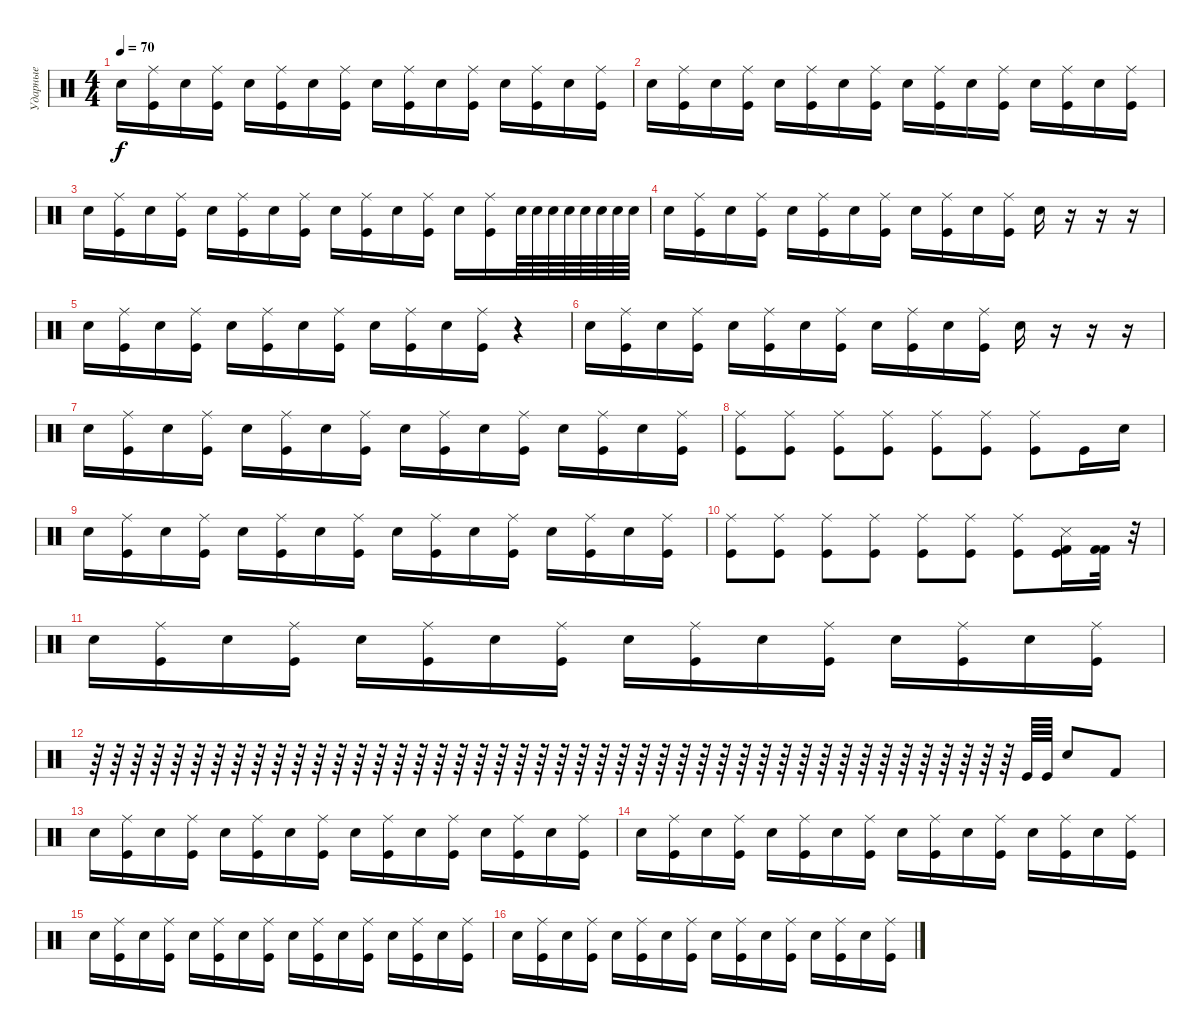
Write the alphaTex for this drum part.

\track ("Ударные" "Ударные") {instrument percussion}
\staff {score}
\articulation defaults
\ts (4 4)
\tempo 70
\clef neutral
\ks c "Snare (hit) 2".16{dy f}
("Kick (hit)" "Ride (middle)").16 "Snare (hit) 2".16 ("Kick (hit)" "Ride (middle)").16 "Snare (hit) 2".16 ("Kick (hit)" "Ride (middle)").16 "Snare (hit) 2".16 ("Kick (hit)" "Ride (middle)").16 "Snare (hit) 2".16 ("Kick (hit)" "Ride (middle)").16 "Snare (hit) 2".16 ("Kick (hit)" "Ride (middle)").16 "Snare (hit) 2".16 ("Kick (hit)" "Ride (middle)").16 "Snare (hit) 2".16 ("Kick (hit)" "Ride (middle)").16 |
"Snare (hit) 2".16 ("Kick (hit)" "Ride (middle)").16 "Snare (hit) 2".16 ("Kick (hit)" "Ride (middle)").16 "Snare (hit) 2".16 ("Kick (hit)" "Ride (middle)").16 "Snare (hit) 2".16 ("Kick (hit)" "Ride (middle)").16 "Snare (hit) 2".16 ("Kick (hit)" "Ride (middle)").16 "Snare (hit) 2".16 ("Kick (hit)" "Ride (middle)").16 "Snare (hit) 2".16 ("Kick (hit)" "Ride (middle)").16 "Snare (hit) 2".16 ("Kick (hit)" "Ride (middle)").16 |
"Snare (hit) 2".16 ("Kick (hit)" "Ride (middle)").16 "Snare (hit) 2".16 ("Kick (hit)" "Ride (middle)").16 "Snare (hit) 2".16 ("Kick (hit)" "Ride (middle)").16 "Snare (hit) 2".16 ("Kick (hit)" "Ride (middle)").16 "Snare (hit) 2".16 ("Kick (hit)" "Ride (middle)").16 "Snare (hit) 2".16 ("Kick (hit)" "Ride (middle)").16 "Snare (hit) 2".16 ("Kick (hit)" "Ride (middle)").16 "Electric Snare (hit)".64 "Electric Snare (hit)".64 "Electric Snare (hit)".64 "Electric Snare (hit)".64 "Electric Snare (hit)".64 "Electric Snare (hit)".64 "Electric Snare (hit)".64 "Electric Snare (hit)".64 |
"Snare (hit) 2".16 ("Kick (hit)" "Ride (middle)").16 "Snare (hit) 2".16 ("Kick (hit)" "Ride (middle)").16 "Snare (hit) 2".16 ("Kick (hit)" "Ride (middle)").16 "Snare (hit) 2".16 ("Kick (hit)" "Ride (middle)").16 "Snare (hit) 2".16 ("Kick (hit)" "Ride (middle)").16 "Snare (hit) 2".16 ("Kick (hit)" "Ride (middle)").16 "Snare (hit) 2".16 r.16 r.16 r.16 |
"Snare (hit) 2".16 ("Kick (hit)" "Ride (middle)").16 "Snare (hit) 2".16 ("Kick (hit)" "Ride (middle)").16 "Snare (hit) 2".16 ("Kick (hit)" "Ride (middle)").16 "Snare (hit) 2".16 ("Kick (hit)" "Ride (middle)").16 "Snare (hit) 2".16 ("Kick (hit)" "Ride (middle)").16 "Snare (hit) 2".16 ("Kick (hit)" "Ride (middle)").16 r.4 |
"Snare (hit) 2".16 ("Kick (hit)" "Ride (middle)").16 "Snare (hit) 2".16 ("Kick (hit)" "Ride (middle)").16 "Snare (hit) 2".16 ("Kick (hit)" "Ride (middle)").16 "Snare (hit) 2".16 ("Kick (hit)" "Ride (middle)").16 "Snare (hit) 2".16 ("Kick (hit)" "Ride (middle)").16 "Snare (hit) 2".16 ("Kick (hit)" "Ride (middle)").16 "Snare (hit) 2".16 r.16 r.16 r.16 |
"Snare (hit) 2".16 ("Kick (hit)" "Ride (middle)").16 "Snare (hit) 2".16 ("Kick (hit)" "Ride (middle)").16 "Snare (hit) 2".16 ("Kick (hit)" "Ride (middle)").16 "Snare (hit) 2".16 ("Kick (hit)" "Ride (middle)").16 "Snare (hit) 2".16 ("Kick (hit)" "Ride (middle)").16 "Snare (hit) 2".16 ("Kick (hit)" "Ride (middle)").16 "Snare (hit) 2".16 ("Kick (hit)" "Ride (middle)").16 "Snare (hit) 2".16 ("Kick (hit)" "Ride (middle)").16 |
("Kick (hit)" "Ride (middle)").8 ("Kick (hit)" "Ride (middle)").8 ("Kick (hit)" "Ride (middle)").8 ("Kick (hit)" "Ride (middle)").8 ("Kick (hit)" "Ride (middle)").8 ("Kick (hit)" "Ride (middle)").8 ("Kick (hit)" "Ride (middle)").8 "Kick (hit)".16 "Snare (hit) 2".16 |
"Snare (hit) 2".16 ("Kick (hit)" "Ride (middle)").16 "Snare (hit) 2".16 ("Kick (hit)" "Ride (middle)").16 "Snare (hit) 2".16 ("Kick (hit)" "Ride (middle)").16 "Snare (hit) 2".16 ("Kick (hit)" "Ride (middle)").16 "Snare (hit) 2".16 ("Kick (hit)" "Ride (middle)").16 "Snare (hit) 2".16 ("Kick (hit)" "Ride (middle)").16 "Snare (hit) 2".16 ("Kick (hit)" "Ride (middle)").16 "Snare (hit) 2".16 ("Kick (hit)" "Ride (middle)").16 |
("Kick (hit)" "Ride (middle)").8 ("Kick (hit)" "Ride (middle)").8 ("Kick (hit)" "Ride (middle)").8 ("Kick (hit)" "Ride (middle)").8 ("Kick (hit)" "Ride (middle)").8 ("Kick (hit)" "Ride (middle)").8 ("Kick (hit)" "Ride (middle)").8 ("Kick (hit) 2" "Snare (side stick) 3" "Kick (hit)").16 ("Kick (hit) 2" "Kick (hit) 2").32 r.32 |
"Snare (hit) 2".16 ("Kick (hit)" "Ride (middle)").16 "Snare (hit) 2".16 ("Kick (hit)" "Ride (middle)").16 "Snare (hit) 2".16 ("Kick (hit)" "Ride (middle)").16 "Snare (hit) 2".16 ("Kick (hit)" "Ride (middle)").16 "Snare (hit) 2".16 ("Kick (hit)" "Ride (middle)").16 "Snare (hit) 2".16 ("Kick (hit)" "Ride (middle)").16 "Snare (hit) 2".16 ("Kick (hit)" "Ride (middle)").16 "Snare (hit) 2".16 ("Kick (hit)" "Ride (middle)").16 |
r.64 r.64 r.64 r.64 r.64 r.64 r.64 r.64 r.64 r.64 r.64 r.64 r.64 r.64 r.64 r.64 r.64 r.64 r.64 r.64 r.64 r.64 r.64 r.64 r.64 r.64 r.64 r.64 r.64 r.64 r.64 r.64 r.64 r.64 r.64 r.64 r.64 r.64 r.64 r.64 r.64 r.64 r.64 r.64 r.64 r.64 "Kick (hit)".64 "Kick (hit)".64 "Snare (hit) 2".8 "Kick (hit) 2".8 |
"Snare (hit) 2".16 ("Kick (hit)" "Ride (middle)").16 "Snare (hit) 2".16 ("Kick (hit)" "Ride (middle)").16 "Snare (hit) 2".16 ("Kick (hit)" "Ride (middle)").16 "Snare (hit) 2".16 ("Kick (hit)" "Ride (middle)").16 "Snare (hit) 2".16 ("Kick (hit)" "Ride (middle)").16 "Snare (hit) 2".16 ("Kick (hit)" "Ride (middle)").16 "Snare (hit) 2".16 ("Kick (hit)" "Ride (middle)").16 "Snare (hit) 2".16 ("Kick (hit)" "Ride (middle)").16 |
"Snare (hit) 2".16 ("Kick (hit)" "Ride (middle)").16 "Snare (hit) 2".16 ("Kick (hit)" "Ride (middle)").16 "Snare (hit) 2".16 ("Kick (hit)" "Ride (middle)").16 "Snare (hit) 2".16 ("Kick (hit)" "Ride (middle)").16 "Snare (hit) 2".16 ("Kick (hit)" "Ride (middle)").16 "Snare (hit) 2".16 ("Kick (hit)" "Ride (middle)").16 "Snare (hit) 2".16 ("Kick (hit)" "Ride (middle)").16 "Snare (hit) 2".16 ("Kick (hit)" "Ride (middle)").16 |
"Snare (hit) 2".16 ("Kick (hit)" "Ride (middle)").16 "Snare (hit) 2".16 ("Kick (hit)" "Ride (middle)").16 "Snare (hit) 2".16 ("Kick (hit)" "Ride (middle)").16 "Snare (hit) 2".16 ("Kick (hit)" "Ride (middle)").16 "Snare (hit) 2".16 ("Kick (hit)" "Ride (middle)").16 "Snare (hit) 2".16 ("Kick (hit)" "Ride (middle)").16 "Snare (hit) 2".16 ("Kick (hit)" "Ride (middle)").16 "Snare (hit) 2".16 ("Kick (hit)" "Ride (middle)").16 |
"Snare (hit) 2".16 ("Kick (hit)" "Ride (middle)").16 "Snare (hit) 2".16 ("Kick (hit)" "Ride (middle)").16 "Snare (hit) 2".16 ("Kick (hit)" "Ride (middle)").16 "Snare (hit) 2".16 ("Kick (hit)" "Ride (middle)").16 "Snare (hit) 2".16 ("Kick (hit)" "Ride (middle)").16 "Snare (hit) 2".16 ("Kick (hit)" "Ride (middle)").16 "Snare (hit) 2".16 ("Kick (hit)" "Ride (middle)").16 "Snare (hit) 2".16 ("Kick (hit)" "Ride (middle)").16
